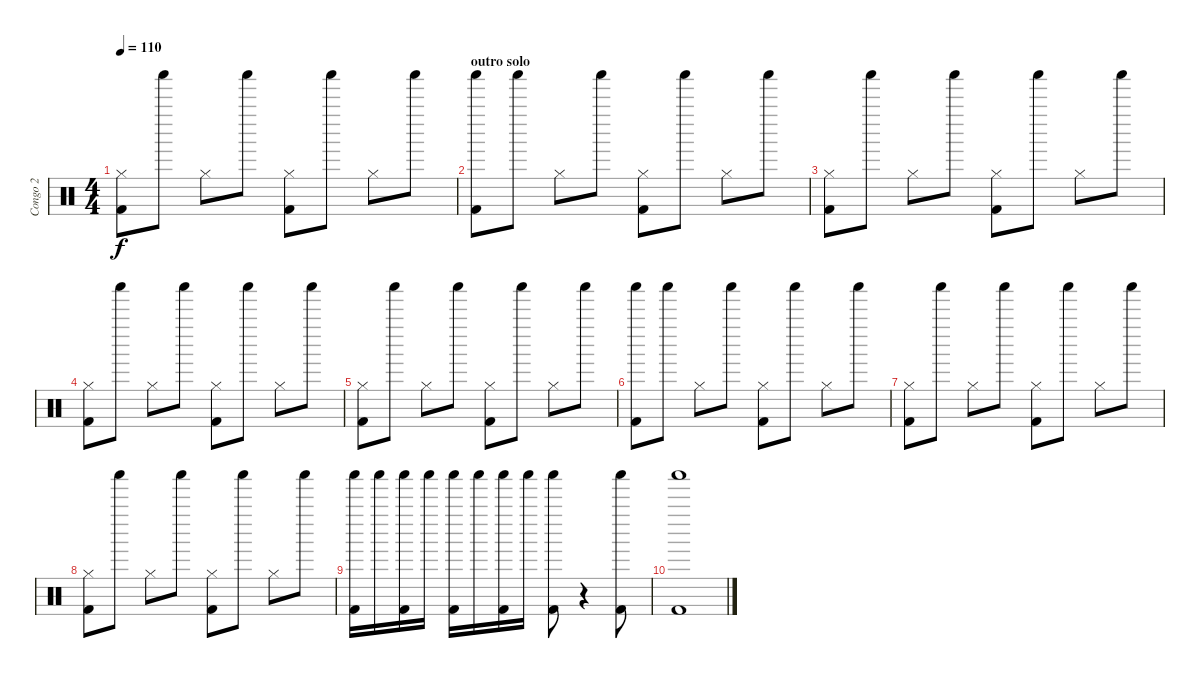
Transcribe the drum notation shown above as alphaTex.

\track ("Congo 2" "Congo 2") {instrument percussion}
\staff {score}
\articulation defaults
\ts (4 4)
\tempo 110
\clef neutral
\ks c
("Kick (hit) 2" "Hi-Hat (closed)").8{dy f} "Shaker (hit)".8 "Hi-Hat (closed)".8 "Shaker (hit)".8 ("Kick (hit) 2" "Hi-Hat (closed)").8 "Shaker (hit)".8 "Hi-Hat (closed)".8 "Shaker (hit)".8 |
\section ("" "outro solo")
("Kick (hit) 2" "Shaker (hit)").8 "Shaker (hit)".8 "Hi-Hat (closed)".8 "Shaker (hit)".8 ("Kick (hit) 2" "Hi-Hat (closed)").8 "Shaker (hit)".8 "Hi-Hat (closed)".8 "Shaker (hit)".8 |
("Kick (hit) 2" "Hi-Hat (closed)").8 "Shaker (hit)".8 "Hi-Hat (closed)".8 "Shaker (hit)".8 ("Kick (hit) 2" "Hi-Hat (closed)").8 "Shaker (hit)".8 "Hi-Hat (closed)".8 "Shaker (hit)".8 |
("Kick (hit) 2" "Hi-Hat (closed)").8 "Shaker (hit)".8 "Hi-Hat (closed)".8 "Shaker (hit)".8 ("Kick (hit) 2" "Hi-Hat (closed)").8 "Shaker (hit)".8 "Hi-Hat (closed)".8 "Shaker (hit)".8 |
("Kick (hit) 2" "Hi-Hat (closed)").8 "Shaker (hit)".8 "Hi-Hat (closed)".8 "Shaker (hit)".8 ("Kick (hit) 2" "Hi-Hat (closed)").8 "Shaker (hit)".8 "Hi-Hat (closed)".8 "Shaker (hit)".8 |
("Kick (hit) 2" "Shaker (hit)").8 "Shaker (hit)".8 "Hi-Hat (closed)".8 "Shaker (hit)".8 ("Kick (hit) 2" "Hi-Hat (closed)").8 "Shaker (hit)".8 "Hi-Hat (closed)".8 "Shaker (hit)".8 |
("Kick (hit) 2" "Hi-Hat (closed)").8 "Shaker (hit)".8 "Hi-Hat (closed)".8 "Shaker (hit)".8 ("Kick (hit) 2" "Hi-Hat (closed)").8 "Shaker (hit)".8 "Hi-Hat (closed)".8 "Shaker (hit)".8 |
("Kick (hit) 2" "Hi-Hat (closed)").8 "Shaker (hit)".8 "Hi-Hat (closed)".8 "Shaker (hit)".8 ("Kick (hit) 2" "Hi-Hat (closed)").8 "Shaker (hit)".8 "Hi-Hat (closed)".8 "Shaker (hit)".8 |
("Kick (hit) 2" "Shaker (hit)").16 "Shaker (hit)".16 ("Kick (hit) 2" "Shaker (hit)").16 "Shaker (hit)".16 ("Kick (hit) 2" "Shaker (hit)").16 "Shaker (hit)".16 ("Kick (hit) 2" "Shaker (hit)").16 "Shaker (hit)".16 ("Kick (hit) 2" "Shaker (hit)").8 r.4 ("Kick (hit) 2" "Shaker (hit)").8 |
("Kick (hit) 2" "Shaker (hit)").1
